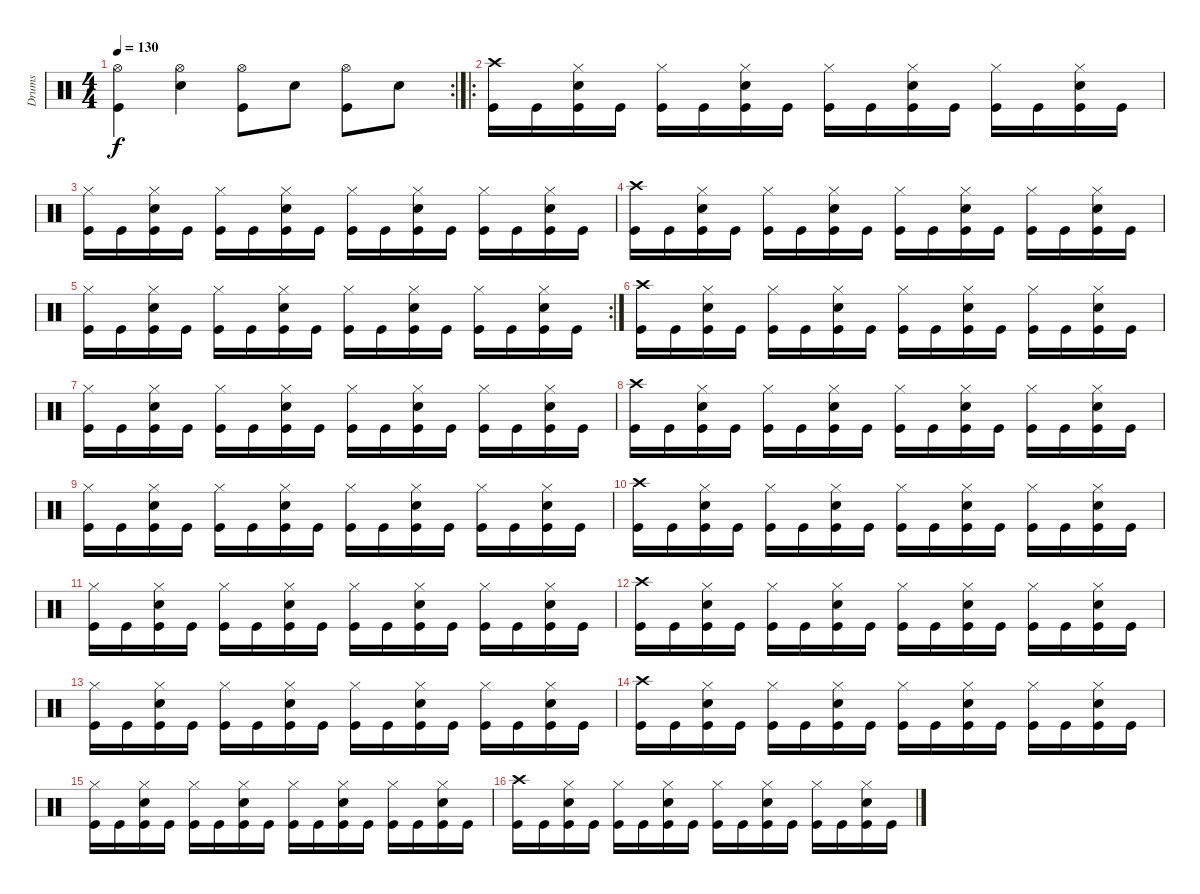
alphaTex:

\track ("Drums" "Drums") {instrument percussion}
\staff {score}
\articulation defaults
\rc 2
\ts (4 4)
\tempo 130
\clef neutral
\ks c
("Hi-Hat (open)" "Kick (hit)").4{dy f} ("Hi-Hat (open)" "Snare (hit) 2").4 ("Hi-Hat (open)" "Kick (hit)").8 "Snare (hit) 2".8 ("Hi-Hat (open)" "Kick (hit)").8 "Snare (hit) 2".8 |
\ro
("Crash high (hit)" "Kick (hit)").16 "Kick (hit)".16 ("Hi-Hat (closed)" "Snare (hit) 2" "Kick (hit)").16 "Kick (hit)".16 ("Hi-Hat (closed)" "Kick (hit)").16 "Kick (hit)".16 ("Hi-Hat (closed)" "Snare (hit) 2" "Kick (hit)").16 "Kick (hit)".16 ("Hi-Hat (closed)" "Kick (hit)").16 "Kick (hit)".16 ("Hi-Hat (closed)" "Snare (hit) 2" "Kick (hit)").16 "Kick (hit)".16 ("Hi-Hat (closed)" "Kick (hit)").16 "Kick (hit)".16 ("Hi-Hat (closed)" "Snare (hit) 2" "Kick (hit)").16 "Kick (hit)".16 |
("Hi-Hat (closed)" "Kick (hit)").16 "Kick (hit)".16 ("Hi-Hat (closed)" "Snare (hit) 2" "Kick (hit)").16 "Kick (hit)".16 ("Hi-Hat (closed)" "Kick (hit)").16 "Kick (hit)".16 ("Hi-Hat (closed)" "Snare (hit) 2" "Kick (hit)").16 "Kick (hit)".16 ("Hi-Hat (closed)" "Kick (hit)").16 "Kick (hit)".16 ("Hi-Hat (closed)" "Snare (hit) 2" "Kick (hit)").16 "Kick (hit)".16 ("Hi-Hat (closed)" "Kick (hit)").16 "Kick (hit)".16 ("Hi-Hat (closed)" "Snare (hit) 2" "Kick (hit)").16 "Kick (hit)".16 |
("Crash high (hit)" "Kick (hit)").16 "Kick (hit)".16 ("Hi-Hat (closed)" "Snare (hit) 2" "Kick (hit)").16 "Kick (hit)".16 ("Hi-Hat (closed)" "Kick (hit)").16 "Kick (hit)".16 ("Hi-Hat (closed)" "Snare (hit) 2" "Kick (hit)").16 "Kick (hit)".16 ("Hi-Hat (closed)" "Kick (hit)").16 "Kick (hit)".16 ("Hi-Hat (closed)" "Snare (hit) 2" "Kick (hit)").16 "Kick (hit)".16 ("Hi-Hat (closed)" "Kick (hit)").16 "Kick (hit)".16 ("Hi-Hat (closed)" "Snare (hit) 2" "Kick (hit)").16 "Kick (hit)".16 |
\rc 2
("Hi-Hat (closed)" "Kick (hit)").16 "Kick (hit)".16 ("Hi-Hat (closed)" "Snare (hit) 2" "Kick (hit)").16 "Kick (hit)".16 ("Hi-Hat (closed)" "Kick (hit)").16 "Kick (hit)".16 ("Hi-Hat (closed)" "Snare (hit) 2" "Kick (hit)").16 "Kick (hit)".16 ("Hi-Hat (closed)" "Kick (hit)").16 "Kick (hit)".16 ("Hi-Hat (closed)" "Snare (hit) 2" "Kick (hit)").16 "Kick (hit)".16 ("Hi-Hat (closed)" "Kick (hit)").16 "Kick (hit)".16 ("Hi-Hat (closed)" "Snare (hit) 2" "Kick (hit)").16 "Kick (hit)".16 |
("Crash high (hit)" "Kick (hit)").16 "Kick (hit)".16 ("Hi-Hat (closed)" "Snare (hit) 2" "Kick (hit)").16 "Kick (hit)".16 ("Hi-Hat (closed)" "Kick (hit)").16 "Kick (hit)".16 ("Hi-Hat (closed)" "Snare (hit) 2" "Kick (hit)").16 "Kick (hit)".16 ("Hi-Hat (closed)" "Kick (hit)").16 "Kick (hit)".16 ("Hi-Hat (closed)" "Snare (hit) 2" "Kick (hit)").16 "Kick (hit)".16 ("Hi-Hat (closed)" "Kick (hit)").16 "Kick (hit)".16 ("Hi-Hat (closed)" "Snare (hit) 2" "Kick (hit)").16 "Kick (hit)".16 |
("Hi-Hat (closed)" "Kick (hit)").16 "Kick (hit)".16 ("Hi-Hat (closed)" "Snare (hit) 2" "Kick (hit)").16 "Kick (hit)".16 ("Hi-Hat (closed)" "Kick (hit)").16 "Kick (hit)".16 ("Hi-Hat (closed)" "Snare (hit) 2" "Kick (hit)").16 "Kick (hit)".16 ("Hi-Hat (closed)" "Kick (hit)").16 "Kick (hit)".16 ("Hi-Hat (closed)" "Snare (hit) 2" "Kick (hit)").16 "Kick (hit)".16 ("Hi-Hat (closed)" "Kick (hit)").16 "Kick (hit)".16 ("Hi-Hat (closed)" "Snare (hit) 2" "Kick (hit)").16 "Kick (hit)".16 |
("Crash high (hit)" "Kick (hit)").16 "Kick (hit)".16 ("Hi-Hat (closed)" "Snare (hit) 2" "Kick (hit)").16 "Kick (hit)".16 ("Hi-Hat (closed)" "Kick (hit)").16 "Kick (hit)".16 ("Hi-Hat (closed)" "Snare (hit) 2" "Kick (hit)").16 "Kick (hit)".16 ("Hi-Hat (closed)" "Kick (hit)").16 "Kick (hit)".16 ("Hi-Hat (closed)" "Snare (hit) 2" "Kick (hit)").16 "Kick (hit)".16 ("Hi-Hat (closed)" "Kick (hit)").16 "Kick (hit)".16 ("Hi-Hat (closed)" "Snare (hit) 2" "Kick (hit)").16 "Kick (hit)".16 |
("Hi-Hat (closed)" "Kick (hit)").16 "Kick (hit)".16 ("Hi-Hat (closed)" "Snare (hit) 2" "Kick (hit)").16 "Kick (hit)".16 ("Hi-Hat (closed)" "Kick (hit)").16 "Kick (hit)".16 ("Hi-Hat (closed)" "Snare (hit) 2" "Kick (hit)").16 "Kick (hit)".16 ("Hi-Hat (closed)" "Kick (hit)").16 "Kick (hit)".16 ("Hi-Hat (closed)" "Snare (hit) 2" "Kick (hit)").16 "Kick (hit)".16 ("Hi-Hat (closed)" "Kick (hit)").16 "Kick (hit)".16 ("Hi-Hat (closed)" "Snare (hit) 2" "Kick (hit)").16 "Kick (hit)".16 |
("Crash high (hit)" "Kick (hit)").16 "Kick (hit)".16 ("Hi-Hat (closed)" "Snare (hit) 2" "Kick (hit)").16 "Kick (hit)".16 ("Hi-Hat (closed)" "Kick (hit)").16 "Kick (hit)".16 ("Hi-Hat (closed)" "Snare (hit) 2" "Kick (hit)").16 "Kick (hit)".16 ("Hi-Hat (closed)" "Kick (hit)").16 "Kick (hit)".16 ("Hi-Hat (closed)" "Snare (hit) 2" "Kick (hit)").16 "Kick (hit)".16 ("Hi-Hat (closed)" "Kick (hit)").16 "Kick (hit)".16 ("Hi-Hat (closed)" "Snare (hit) 2" "Kick (hit)").16 "Kick (hit)".16 |
("Hi-Hat (closed)" "Kick (hit)").16 "Kick (hit)".16 ("Hi-Hat (closed)" "Snare (hit) 2" "Kick (hit)").16 "Kick (hit)".16 ("Hi-Hat (closed)" "Kick (hit)").16 "Kick (hit)".16 ("Hi-Hat (closed)" "Snare (hit) 2" "Kick (hit)").16 "Kick (hit)".16 ("Hi-Hat (closed)" "Kick (hit)").16 "Kick (hit)".16 ("Hi-Hat (closed)" "Snare (hit) 2" "Kick (hit)").16 "Kick (hit)".16 ("Hi-Hat (closed)" "Kick (hit)").16 "Kick (hit)".16 ("Hi-Hat (closed)" "Snare (hit) 2" "Kick (hit)").16 "Kick (hit)".16 |
("Crash high (hit)" "Kick (hit)").16 "Kick (hit)".16 ("Hi-Hat (closed)" "Snare (hit) 2" "Kick (hit)").16 "Kick (hit)".16 ("Hi-Hat (closed)" "Kick (hit)").16 "Kick (hit)".16 ("Hi-Hat (closed)" "Snare (hit) 2" "Kick (hit)").16 "Kick (hit)".16 ("Hi-Hat (closed)" "Kick (hit)").16 "Kick (hit)".16 ("Hi-Hat (closed)" "Snare (hit) 2" "Kick (hit)").16 "Kick (hit)".16 ("Hi-Hat (closed)" "Kick (hit)").16 "Kick (hit)".16 ("Hi-Hat (closed)" "Snare (hit) 2" "Kick (hit)").16 "Kick (hit)".16 |
("Hi-Hat (closed)" "Kick (hit)").16 "Kick (hit)".16 ("Hi-Hat (closed)" "Snare (hit) 2" "Kick (hit)").16 "Kick (hit)".16 ("Hi-Hat (closed)" "Kick (hit)").16 "Kick (hit)".16 ("Hi-Hat (closed)" "Snare (hit) 2" "Kick (hit)").16 "Kick (hit)".16 ("Hi-Hat (closed)" "Kick (hit)").16 "Kick (hit)".16 ("Hi-Hat (closed)" "Snare (hit) 2" "Kick (hit)").16 "Kick (hit)".16 ("Hi-Hat (closed)" "Kick (hit)").16 "Kick (hit)".16 ("Hi-Hat (closed)" "Snare (hit) 2" "Kick (hit)").16 "Kick (hit)".16 |
("Crash high (hit)" "Kick (hit)").16 "Kick (hit)".16 ("Hi-Hat (closed)" "Snare (hit) 2" "Kick (hit)").16 "Kick (hit)".16 ("Hi-Hat (closed)" "Kick (hit)").16 "Kick (hit)".16 ("Hi-Hat (closed)" "Snare (hit) 2" "Kick (hit)").16 "Kick (hit)".16 ("Hi-Hat (closed)" "Kick (hit)").16 "Kick (hit)".16 ("Hi-Hat (closed)" "Snare (hit) 2" "Kick (hit)").16 "Kick (hit)".16 ("Hi-Hat (closed)" "Kick (hit)").16 "Kick (hit)".16 ("Hi-Hat (closed)" "Snare (hit) 2" "Kick (hit)").16 "Kick (hit)".16 |
("Hi-Hat (closed)" "Kick (hit)").16 "Kick (hit)".16 ("Hi-Hat (closed)" "Snare (hit) 2" "Kick (hit)").16 "Kick (hit)".16 ("Hi-Hat (closed)" "Kick (hit)").16 "Kick (hit)".16 ("Hi-Hat (closed)" "Snare (hit) 2" "Kick (hit)").16 "Kick (hit)".16 ("Hi-Hat (closed)" "Kick (hit)").16 "Kick (hit)".16 ("Hi-Hat (closed)" "Snare (hit) 2" "Kick (hit)").16 "Kick (hit)".16 ("Hi-Hat (closed)" "Kick (hit)").16 "Kick (hit)".16 ("Hi-Hat (closed)" "Snare (hit) 2" "Kick (hit)").16 "Kick (hit)".16 |
("Crash high (hit)" "Kick (hit)").16 "Kick (hit)".16 ("Hi-Hat (closed)" "Snare (hit) 2" "Kick (hit)").16 "Kick (hit)".16 ("Hi-Hat (closed)" "Kick (hit)").16 "Kick (hit)".16 ("Hi-Hat (closed)" "Snare (hit) 2" "Kick (hit)").16 "Kick (hit)".16 ("Hi-Hat (closed)" "Kick (hit)").16 "Kick (hit)".16 ("Hi-Hat (closed)" "Snare (hit) 2" "Kick (hit)").16 "Kick (hit)".16 ("Hi-Hat (closed)" "Kick (hit)").16 "Kick (hit)".16 ("Hi-Hat (closed)" "Snare (hit) 2" "Kick (hit)").16 "Kick (hit)".16
